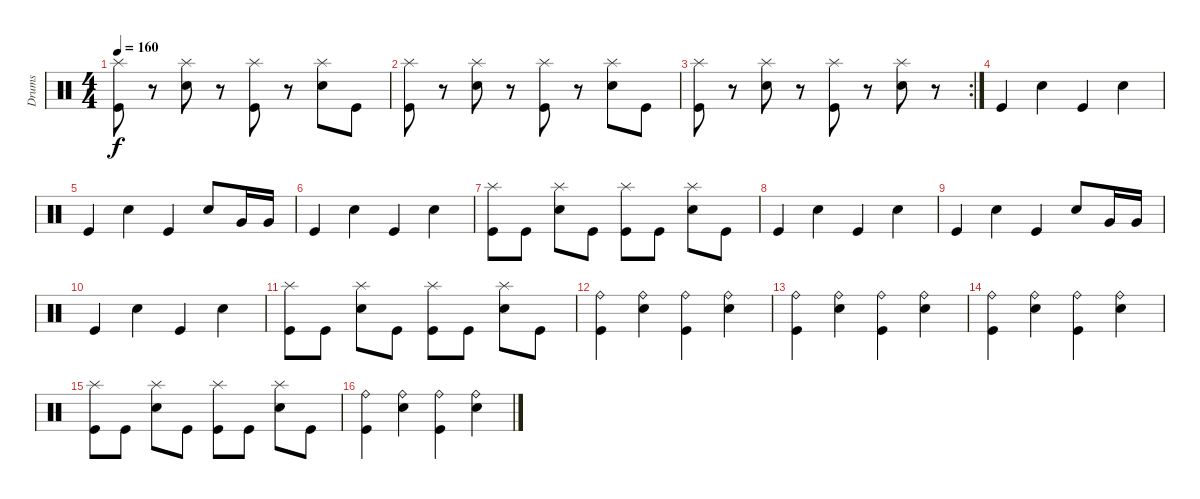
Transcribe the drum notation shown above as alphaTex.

\track ("Drums" "Drums") {instrument percussion}
\staff {score}
\articulation defaults
\ts (4 4)
\tempo 160
\clef neutral
\ks c
("Kick (hit)" "Splash (hit)").8{dy f} r.8 ("Electric Snare (hit)" "Splash (hit)").8 r.8 ("Kick (hit)" "Splash (hit)").8 r.8 ("Electric Snare (hit)" "Splash (hit)").8 "Kick (hit)".8 |
("Kick (hit)" "Splash (hit)").8 r.8 ("Electric Snare (hit)" "Splash (hit)").8 r.8 ("Kick (hit)" "Splash (hit)").8 r.8 ("Electric Snare (hit)" "Splash (hit)").8 "Kick (hit)".8 |
\rc 2
("Kick (hit)" "Splash (hit)").8 r.8 ("Electric Snare (hit)" "Splash (hit)").8 r.8 ("Kick (hit)" "Splash (hit)").8 r.8 ("Electric Snare (hit)" "Splash (hit)").8 r.8 |
"Kick (hit)".4 "Electric Snare (hit)".4 "Kick (hit)".4 "Electric Snare (hit)".4 |
"Kick (hit)".4 "Electric Snare (hit)".4 "Kick (hit)".4 "Electric Snare (hit)".8 "Very Low Tom (hit)".16 "Very Low Tom (hit)".16 |
"Kick (hit)".4 "Electric Snare (hit)".4 "Kick (hit)".4 "Electric Snare (hit)".4 |
("Kick (hit)" "Splash (hit)").8 "Kick (hit)".8 ("Electric Snare (hit)" "Splash (hit)").8 "Kick (hit)".8 ("Kick (hit)" "Splash (hit)").8 "Kick (hit)".8 ("Electric Snare (hit)" "Splash (hit)").8 "Kick (hit)".8 |
"Kick (hit)".4 "Electric Snare (hit)".4 "Kick (hit)".4 "Electric Snare (hit)".4 |
"Kick (hit)".4 "Electric Snare (hit)".4 "Kick (hit)".4 "Electric Snare (hit)".8 "Very Low Tom (hit)".16 "Very Low Tom (hit)".16 |
"Kick (hit)".4 "Electric Snare (hit)".4 "Kick (hit)".4 "Electric Snare (hit)".4 |
("Kick (hit)" "Splash (hit)").8 "Kick (hit)".8 ("Electric Snare (hit)" "Splash (hit)").8 "Kick (hit)".8 ("Kick (hit)" "Splash (hit)").8 "Kick (hit)".8 ("Electric Snare (hit)" "Splash (hit)").8 "Kick (hit)".8 |
("Kick (hit)" "Ride (bell)").4 ("Electric Snare (hit)" "Ride (bell)").4 ("Kick (hit)" "Ride (bell)").4 ("Electric Snare (hit)" "Ride (bell)").4 |
("Kick (hit)" "Ride (bell)").4 ("Electric Snare (hit)" "Ride (bell)").4 ("Kick (hit)" "Ride (bell)").4 ("Electric Snare (hit)" "Ride (bell)").4 |
("Kick (hit)" "Ride (bell)").4 ("Electric Snare (hit)" "Ride (bell)").4 ("Kick (hit)" "Ride (bell)").4 ("Electric Snare (hit)" "Ride (bell)").4 |
("Kick (hit)" "Splash (hit)").8 "Kick (hit)".8 ("Electric Snare (hit)" "Splash (hit)").8 "Kick (hit)".8 ("Kick (hit)" "Splash (hit)").8 "Kick (hit)".8 ("Electric Snare (hit)" "Splash (hit)").8 "Kick (hit)".8 |
("Kick (hit)" "Ride (bell)").4 ("Electric Snare (hit)" "Ride (bell)").4 ("Kick (hit)" "Ride (bell)").4 ("Electric Snare (hit)" "Ride (bell)").4
